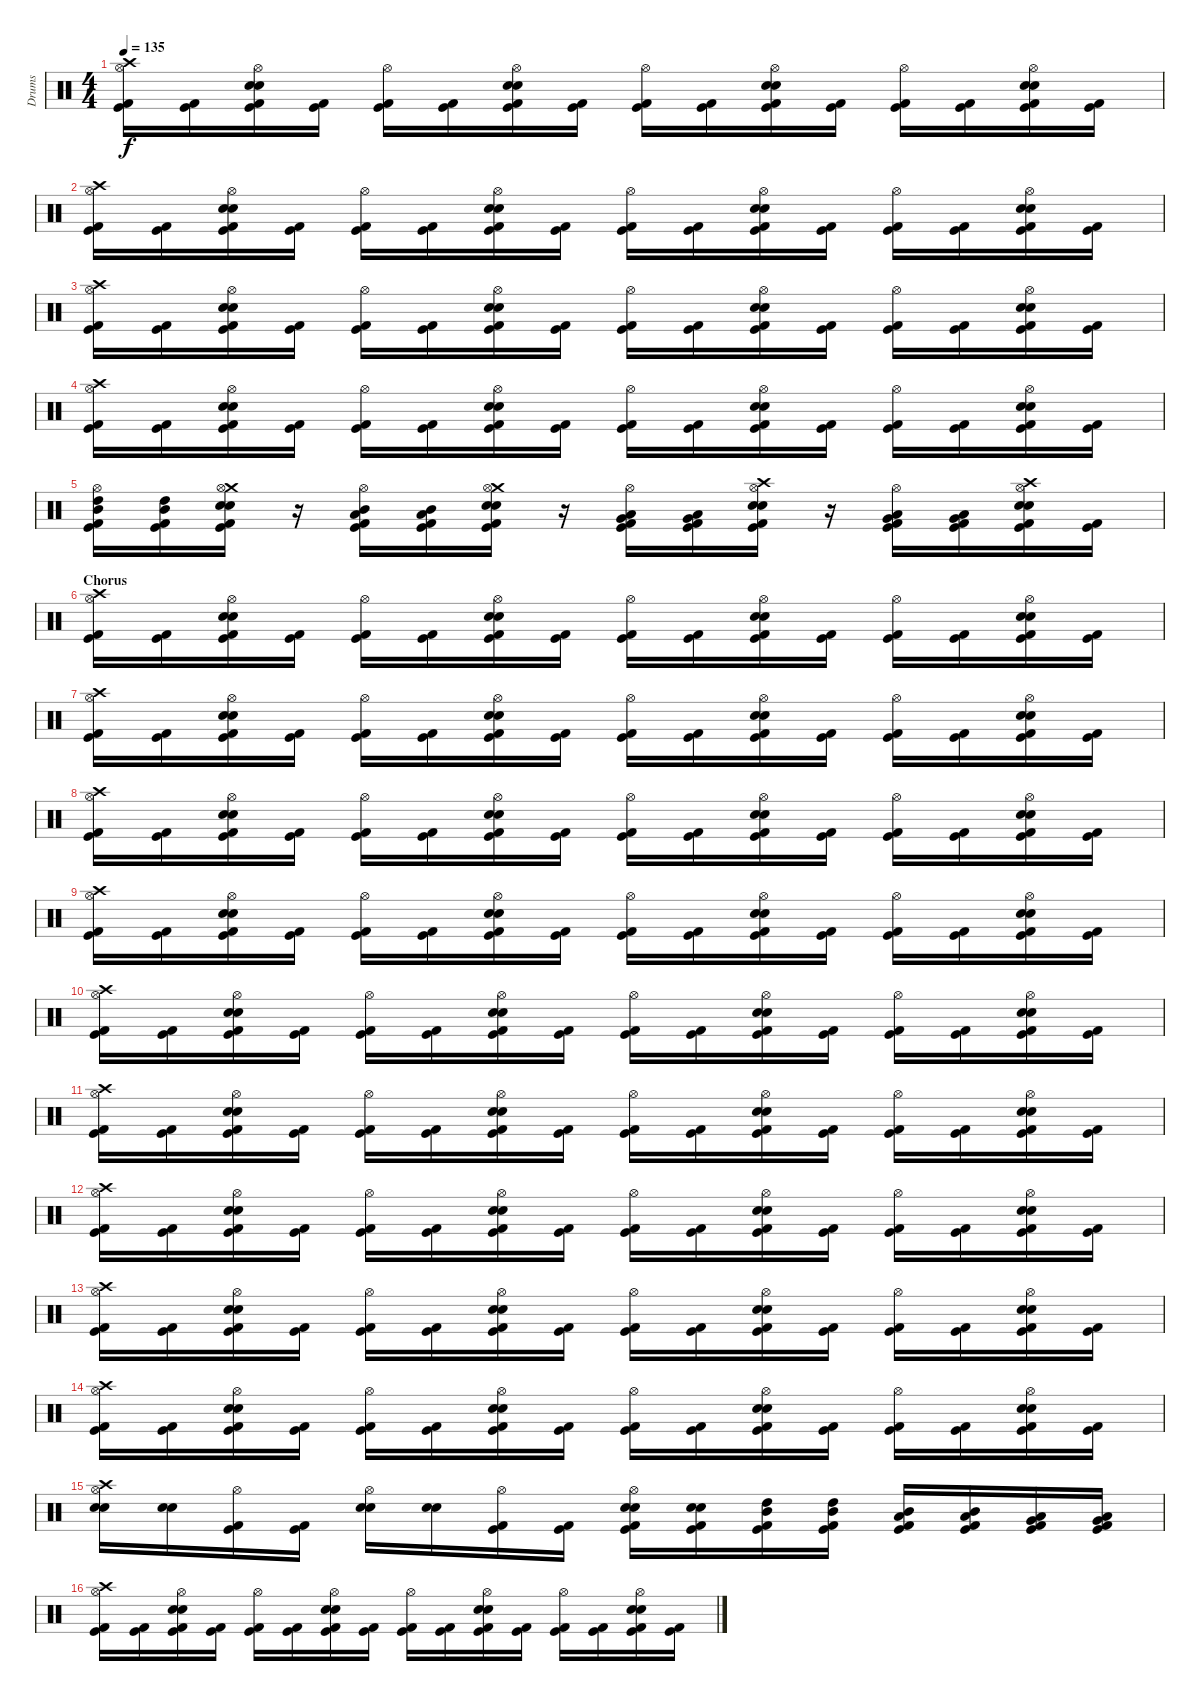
\track ("Drums" "Drums") {instrument percussion}
\staff {score}
\articulation defaults
\ts (4 4)
\tempo 135
\clef neutral
\ks c
("Crash high (hit)" "Hi-Hat (open)" "Kick (hit) 2" "Kick (hit)").16{dy f} ("Kick (hit) 2" "Kick (hit)").16 ("Hi-Hat (open)" "Snare (hit) 2" "Electric Snare (hit)" "Kick (hit) 2" "Kick (hit)").16 ("Kick (hit) 2" "Kick (hit)").16 ("Hi-Hat (open)" "Kick (hit) 2" "Kick (hit)").16 ("Kick (hit) 2" "Kick (hit)").16 ("Hi-Hat (open)" "Snare (hit) 2" "Electric Snare (hit)" "Kick (hit) 2" "Kick (hit)").16 ("Kick (hit) 2" "Kick (hit)").16 ("Hi-Hat (open)" "Kick (hit) 2" "Kick (hit)").16 ("Kick (hit) 2" "Kick (hit)").16 ("Hi-Hat (open)" "Snare (hit) 2" "Electric Snare (hit)" "Kick (hit) 2" "Kick (hit)").16 ("Kick (hit) 2" "Kick (hit)").16 ("Hi-Hat (open)" "Kick (hit) 2" "Kick (hit)").16 ("Kick (hit) 2" "Kick (hit)").16 ("Hi-Hat (open)" "Snare (hit) 2" "Electric Snare (hit)" "Kick (hit) 2" "Kick (hit)").16 ("Kick (hit) 2" "Kick (hit)").16 |
("Crash high (hit)" "Hi-Hat (open)" "Kick (hit) 2" "Kick (hit)").16 ("Kick (hit) 2" "Kick (hit)").16 ("Hi-Hat (open)" "Snare (hit) 2" "Electric Snare (hit)" "Kick (hit) 2" "Kick (hit)").16 ("Kick (hit) 2" "Kick (hit)").16 ("Hi-Hat (open)" "Kick (hit) 2" "Kick (hit)").16 ("Kick (hit) 2" "Kick (hit)").16 ("Hi-Hat (open)" "Snare (hit) 2" "Electric Snare (hit)" "Kick (hit) 2" "Kick (hit)").16 ("Kick (hit) 2" "Kick (hit)").16 ("Hi-Hat (open)" "Kick (hit) 2" "Kick (hit)").16 ("Kick (hit) 2" "Kick (hit)").16 ("Hi-Hat (open)" "Snare (hit) 2" "Electric Snare (hit)" "Kick (hit) 2" "Kick (hit)").16 ("Kick (hit) 2" "Kick (hit)").16 ("Hi-Hat (open)" "Kick (hit) 2" "Kick (hit)").16 ("Kick (hit) 2" "Kick (hit)").16 ("Hi-Hat (open)" "Snare (hit) 2" "Electric Snare (hit)" "Kick (hit) 2" "Kick (hit)").16 ("Kick (hit) 2" "Kick (hit)").16 |
("Crash high (hit)" "Hi-Hat (open)" "Kick (hit) 2" "Kick (hit)").16 ("Kick (hit) 2" "Kick (hit)").16 ("Hi-Hat (open)" "Snare (hit) 2" "Electric Snare (hit)" "Kick (hit) 2" "Kick (hit)").16 ("Kick (hit) 2" "Kick (hit)").16 ("Hi-Hat (open)" "Kick (hit) 2" "Kick (hit)").16 ("Kick (hit) 2" "Kick (hit)").16 ("Hi-Hat (open)" "Snare (hit) 2" "Electric Snare (hit)" "Kick (hit) 2" "Kick (hit)").16 ("Kick (hit) 2" "Kick (hit)").16 ("Hi-Hat (open)" "Kick (hit) 2" "Kick (hit)").16 ("Kick (hit) 2" "Kick (hit)").16 ("Hi-Hat (open)" "Snare (hit) 2" "Electric Snare (hit)" "Kick (hit) 2" "Kick (hit)").16 ("Kick (hit) 2" "Kick (hit)").16 ("Hi-Hat (open)" "Kick (hit) 2" "Kick (hit)").16 ("Kick (hit) 2" "Kick (hit)").16 ("Hi-Hat (open)" "Snare (hit) 2" "Electric Snare (hit)" "Kick (hit) 2" "Kick (hit)").16 ("Kick (hit) 2" "Kick (hit)").16 |
("Crash high (hit)" "Hi-Hat (open)" "Kick (hit) 2" "Kick (hit)").16 ("Kick (hit) 2" "Kick (hit)").16 ("Hi-Hat (open)" "Snare (hit) 2" "Electric Snare (hit)" "Kick (hit) 2" "Kick (hit)").16 ("Kick (hit) 2" "Kick (hit)").16 ("Hi-Hat (open)" "Kick (hit) 2" "Kick (hit)").16 ("Kick (hit) 2" "Kick (hit)").16 ("Hi-Hat (open)" "Snare (hit) 2" "Electric Snare (hit)" "Kick (hit) 2" "Kick (hit)").16 ("Kick (hit) 2" "Kick (hit)").16 ("Hi-Hat (open)" "Kick (hit) 2" "Kick (hit)").16 ("Kick (hit) 2" "Kick (hit)").16 ("Hi-Hat (open)" "Snare (hit) 2" "Electric Snare (hit)" "Kick (hit) 2" "Kick (hit)").16 ("Kick (hit) 2" "Kick (hit)").16 ("Hi-Hat (open)" "Kick (hit) 2" "Kick (hit)").16 ("Kick (hit) 2" "Kick (hit)").16 ("Hi-Hat (open)" "Snare (hit) 2" "Electric Snare (hit)" "Kick (hit) 2" "Kick (hit)").16 ("Kick (hit) 2" "Kick (hit)").16 |
("Hi-Hat (open)" "Mid Tom (hit)" "High Tom (hit)" "Kick (hit) 2" "Kick (hit)").16 ("Mid Tom (hit)" "High Tom (hit)" "Kick (hit) 2" "Kick (hit)").16 ("Crash medium (hit)" "Hi-Hat (open)" "Snare (hit) 2" "Electric Snare (hit)" "Kick (hit) 2" "Kick (hit)").16 r.16 ("Hi-Hat (open)" "Mid Tom (hit)" "Low Tom (hit)" "Kick (hit) 2" "Kick (hit)").16 ("Mid Tom (hit)" "Low Tom (hit)" "Kick (hit) 2" "Kick (hit)").16 ("Crash medium (hit)" "Hi-Hat (open)" "Snare (hit) 2" "Electric Snare (hit)" "Kick (hit) 2" "Kick (hit)").16 r.16 ("Hi-Hat (open)" "Very Low Tom (hit)" "Low Tom (hit)" "Kick (hit) 2" "Kick (hit)").16 ("Very Low Tom (hit)" "Low Tom (hit)" "Kick (hit) 2" "Kick (hit)").16 ("Crash high (hit)" "Hi-Hat (open)" "Snare (hit) 2" "Electric Snare (hit)" "Kick (hit) 2" "Kick (hit)").16 r.16 ("Hi-Hat (open)" "Very Low Tom (hit)" "Low Floor Tom (hit)" "Kick (hit) 2" "Kick (hit)").16 ("Very Low Tom (hit)" "Low Floor Tom (hit)" "Kick (hit) 2" "Kick (hit)").16 ("Crash high (hit)" "Hi-Hat (open)" "Snare (hit) 2" "Electric Snare (hit)" "Kick (hit) 2" "Kick (hit)").16 ("Kick (hit) 2" "Kick (hit)").16 |
\section ("" "Chorus")
("Crash high (hit)" "Hi-Hat (open)" "Kick (hit) 2" "Kick (hit)").16 ("Kick (hit) 2" "Kick (hit)").16 ("Hi-Hat (open)" "Snare (hit) 2" "Electric Snare (hit)" "Kick (hit) 2" "Kick (hit)").16 ("Kick (hit) 2" "Kick (hit)").16 ("Hi-Hat (open)" "Kick (hit) 2" "Kick (hit)").16 ("Kick (hit) 2" "Kick (hit)").16 ("Hi-Hat (open)" "Snare (hit) 2" "Electric Snare (hit)" "Kick (hit) 2" "Kick (hit)").16 ("Kick (hit) 2" "Kick (hit)").16 ("Hi-Hat (open)" "Kick (hit) 2" "Kick (hit)").16 ("Kick (hit) 2" "Kick (hit)").16 ("Hi-Hat (open)" "Snare (hit) 2" "Electric Snare (hit)" "Kick (hit) 2" "Kick (hit)").16 ("Kick (hit) 2" "Kick (hit)").16 ("Hi-Hat (open)" "Kick (hit) 2" "Kick (hit)").16 ("Kick (hit) 2" "Kick (hit)").16 ("Hi-Hat (open)" "Snare (hit) 2" "Electric Snare (hit)" "Kick (hit) 2" "Kick (hit)").16 ("Kick (hit) 2" "Kick (hit)").16 |
("Crash high (hit)" "Hi-Hat (open)" "Kick (hit) 2" "Kick (hit)").16 ("Kick (hit) 2" "Kick (hit)").16 ("Hi-Hat (open)" "Snare (hit) 2" "Electric Snare (hit)" "Kick (hit) 2" "Kick (hit)").16 ("Kick (hit) 2" "Kick (hit)").16 ("Hi-Hat (open)" "Kick (hit) 2" "Kick (hit)").16 ("Kick (hit) 2" "Kick (hit)").16 ("Hi-Hat (open)" "Snare (hit) 2" "Electric Snare (hit)" "Kick (hit) 2" "Kick (hit)").16 ("Kick (hit) 2" "Kick (hit)").16 ("Hi-Hat (open)" "Kick (hit) 2" "Kick (hit)").16 ("Kick (hit) 2" "Kick (hit)").16 ("Hi-Hat (open)" "Snare (hit) 2" "Electric Snare (hit)" "Kick (hit) 2" "Kick (hit)").16 ("Kick (hit) 2" "Kick (hit)").16 ("Hi-Hat (open)" "Kick (hit) 2" "Kick (hit)").16 ("Kick (hit) 2" "Kick (hit)").16 ("Hi-Hat (open)" "Snare (hit) 2" "Electric Snare (hit)" "Kick (hit) 2" "Kick (hit)").16 ("Kick (hit) 2" "Kick (hit)").16 |
("Crash high (hit)" "Hi-Hat (open)" "Kick (hit) 2" "Kick (hit)").16 ("Kick (hit) 2" "Kick (hit)").16 ("Hi-Hat (open)" "Snare (hit) 2" "Electric Snare (hit)" "Kick (hit) 2" "Kick (hit)").16 ("Kick (hit) 2" "Kick (hit)").16 ("Hi-Hat (open)" "Kick (hit) 2" "Kick (hit)").16 ("Kick (hit) 2" "Kick (hit)").16 ("Hi-Hat (open)" "Snare (hit) 2" "Electric Snare (hit)" "Kick (hit) 2" "Kick (hit)").16 ("Kick (hit) 2" "Kick (hit)").16 ("Hi-Hat (open)" "Kick (hit) 2" "Kick (hit)").16 ("Kick (hit) 2" "Kick (hit)").16 ("Hi-Hat (open)" "Snare (hit) 2" "Electric Snare (hit)" "Kick (hit) 2" "Kick (hit)").16 ("Kick (hit) 2" "Kick (hit)").16 ("Hi-Hat (open)" "Kick (hit) 2" "Kick (hit)").16 ("Kick (hit) 2" "Kick (hit)").16 ("Hi-Hat (open)" "Snare (hit) 2" "Electric Snare (hit)" "Kick (hit) 2" "Kick (hit)").16 ("Kick (hit) 2" "Kick (hit)").16 |
("Crash high (hit)" "Hi-Hat (open)" "Kick (hit) 2" "Kick (hit)").16 ("Kick (hit) 2" "Kick (hit)").16 ("Hi-Hat (open)" "Snare (hit) 2" "Electric Snare (hit)" "Kick (hit) 2" "Kick (hit)").16 ("Kick (hit) 2" "Kick (hit)").16 ("Hi-Hat (open)" "Kick (hit) 2" "Kick (hit)").16 ("Kick (hit) 2" "Kick (hit)").16 ("Hi-Hat (open)" "Snare (hit) 2" "Electric Snare (hit)" "Kick (hit) 2" "Kick (hit)").16 ("Kick (hit) 2" "Kick (hit)").16 ("Hi-Hat (open)" "Kick (hit) 2" "Kick (hit)").16 ("Kick (hit) 2" "Kick (hit)").16 ("Hi-Hat (open)" "Snare (hit) 2" "Electric Snare (hit)" "Kick (hit) 2" "Kick (hit)").16 ("Kick (hit) 2" "Kick (hit)").16 ("Hi-Hat (open)" "Kick (hit) 2" "Kick (hit)").16 ("Kick (hit) 2" "Kick (hit)").16 ("Hi-Hat (open)" "Snare (hit) 2" "Electric Snare (hit)" "Kick (hit) 2" "Kick (hit)").16 ("Kick (hit) 2" "Kick (hit)").16 |
("Crash high (hit)" "Hi-Hat (open)" "Kick (hit) 2" "Kick (hit)").16 ("Kick (hit) 2" "Kick (hit)").16 ("Hi-Hat (open)" "Snare (hit) 2" "Electric Snare (hit)" "Kick (hit) 2" "Kick (hit)").16 ("Kick (hit) 2" "Kick (hit)").16 ("Hi-Hat (open)" "Kick (hit) 2" "Kick (hit)").16 ("Kick (hit) 2" "Kick (hit)").16 ("Hi-Hat (open)" "Snare (hit) 2" "Electric Snare (hit)" "Kick (hit) 2" "Kick (hit)").16 ("Kick (hit) 2" "Kick (hit)").16 ("Hi-Hat (open)" "Kick (hit) 2" "Kick (hit)").16 ("Kick (hit) 2" "Kick (hit)").16 ("Hi-Hat (open)" "Snare (hit) 2" "Electric Snare (hit)" "Kick (hit) 2" "Kick (hit)").16 ("Kick (hit) 2" "Kick (hit)").16 ("Hi-Hat (open)" "Kick (hit) 2" "Kick (hit)").16 ("Kick (hit) 2" "Kick (hit)").16 ("Hi-Hat (open)" "Snare (hit) 2" "Electric Snare (hit)" "Kick (hit) 2" "Kick (hit)").16 ("Kick (hit) 2" "Kick (hit)").16 |
("Crash high (hit)" "Hi-Hat (open)" "Kick (hit) 2" "Kick (hit)").16 ("Kick (hit) 2" "Kick (hit)").16 ("Hi-Hat (open)" "Snare (hit) 2" "Electric Snare (hit)" "Kick (hit) 2" "Kick (hit)").16 ("Kick (hit) 2" "Kick (hit)").16 ("Hi-Hat (open)" "Kick (hit) 2" "Kick (hit)").16 ("Kick (hit) 2" "Kick (hit)").16 ("Hi-Hat (open)" "Snare (hit) 2" "Electric Snare (hit)" "Kick (hit) 2" "Kick (hit)").16 ("Kick (hit) 2" "Kick (hit)").16 ("Hi-Hat (open)" "Kick (hit) 2" "Kick (hit)").16 ("Kick (hit) 2" "Kick (hit)").16 ("Hi-Hat (open)" "Snare (hit) 2" "Electric Snare (hit)" "Kick (hit) 2" "Kick (hit)").16 ("Kick (hit) 2" "Kick (hit)").16 ("Hi-Hat (open)" "Kick (hit) 2" "Kick (hit)").16 ("Kick (hit) 2" "Kick (hit)").16 ("Hi-Hat (open)" "Snare (hit) 2" "Electric Snare (hit)" "Kick (hit) 2" "Kick (hit)").16 ("Kick (hit) 2" "Kick (hit)").16 |
("Crash high (hit)" "Hi-Hat (open)" "Kick (hit) 2" "Kick (hit)").16 ("Kick (hit) 2" "Kick (hit)").16 ("Hi-Hat (open)" "Snare (hit) 2" "Electric Snare (hit)" "Kick (hit) 2" "Kick (hit)").16 ("Kick (hit) 2" "Kick (hit)").16 ("Hi-Hat (open)" "Kick (hit) 2" "Kick (hit)").16 ("Kick (hit) 2" "Kick (hit)").16 ("Hi-Hat (open)" "Snare (hit) 2" "Electric Snare (hit)" "Kick (hit) 2" "Kick (hit)").16 ("Kick (hit) 2" "Kick (hit)").16 ("Hi-Hat (open)" "Kick (hit) 2" "Kick (hit)").16 ("Kick (hit) 2" "Kick (hit)").16 ("Hi-Hat (open)" "Snare (hit) 2" "Electric Snare (hit)" "Kick (hit) 2" "Kick (hit)").16 ("Kick (hit) 2" "Kick (hit)").16 ("Hi-Hat (open)" "Kick (hit) 2" "Kick (hit)").16 ("Kick (hit) 2" "Kick (hit)").16 ("Hi-Hat (open)" "Snare (hit) 2" "Electric Snare (hit)" "Kick (hit) 2" "Kick (hit)").16 ("Kick (hit) 2" "Kick (hit)").16 |
("Crash high (hit)" "Hi-Hat (open)" "Kick (hit) 2" "Kick (hit)").16 ("Kick (hit) 2" "Kick (hit)").16 ("Hi-Hat (open)" "Snare (hit) 2" "Electric Snare (hit)" "Kick (hit) 2" "Kick (hit)").16 ("Kick (hit) 2" "Kick (hit)").16 ("Hi-Hat (open)" "Kick (hit) 2" "Kick (hit)").16 ("Kick (hit) 2" "Kick (hit)").16 ("Hi-Hat (open)" "Snare (hit) 2" "Electric Snare (hit)" "Kick (hit) 2" "Kick (hit)").16 ("Kick (hit) 2" "Kick (hit)").16 ("Hi-Hat (open)" "Kick (hit) 2" "Kick (hit)").16 ("Kick (hit) 2" "Kick (hit)").16 ("Hi-Hat (open)" "Snare (hit) 2" "Electric Snare (hit)" "Kick (hit) 2" "Kick (hit)").16 ("Kick (hit) 2" "Kick (hit)").16 ("Hi-Hat (open)" "Kick (hit) 2" "Kick (hit)").16 ("Kick (hit) 2" "Kick (hit)").16 ("Hi-Hat (open)" "Snare (hit) 2" "Electric Snare (hit)" "Kick (hit) 2" "Kick (hit)").16 ("Kick (hit) 2" "Kick (hit)").16 |
("Crash high (hit)" "Hi-Hat (open)" "Kick (hit) 2" "Kick (hit)").16 ("Kick (hit) 2" "Kick (hit)").16 ("Hi-Hat (open)" "Snare (hit) 2" "Electric Snare (hit)" "Kick (hit) 2" "Kick (hit)").16 ("Kick (hit) 2" "Kick (hit)").16 ("Hi-Hat (open)" "Kick (hit) 2" "Kick (hit)").16 ("Kick (hit) 2" "Kick (hit)").16 ("Hi-Hat (open)" "Snare (hit) 2" "Electric Snare (hit)" "Kick (hit) 2" "Kick (hit)").16 ("Kick (hit) 2" "Kick (hit)").16 ("Hi-Hat (open)" "Kick (hit) 2" "Kick (hit)").16 ("Kick (hit) 2" "Kick (hit)").16 ("Hi-Hat (open)" "Snare (hit) 2" "Electric Snare (hit)" "Kick (hit) 2" "Kick (hit)").16 ("Kick (hit) 2" "Kick (hit)").16 ("Hi-Hat (open)" "Kick (hit) 2" "Kick (hit)").16 ("Kick (hit) 2" "Kick (hit)").16 ("Hi-Hat (open)" "Snare (hit) 2" "Electric Snare (hit)" "Kick (hit) 2" "Kick (hit)").16 ("Kick (hit) 2" "Kick (hit)").16 |
("Crash high (hit)" "Hi-Hat (open)" "Electric Snare (hit)" "Snare (hit) 2").16 ("Snare (hit) 2" "Electric Snare (hit)").16 ("Hi-Hat (open)" "Kick (hit) 2" "Kick (hit)").16 ("Kick (hit) 2" "Kick (hit)").16 ("Hi-Hat (open)" "Electric Snare (hit)" "Snare (hit) 2").16 ("Electric Snare (hit)" "Snare (hit) 2").16 ("Hi-Hat (open)" "Kick (hit) 2" "Kick (hit)").16 ("Kick (hit) 2" "Kick (hit)").16 ("Hi-Hat (open)" "Electric Snare (hit)" "Snare (hit) 2" "Kick (hit) 2" "Kick (hit)").16 ("Electric Snare (hit)" "Snare (hit) 2" "Kick (hit) 2" "Kick (hit)").16 ("High Tom (hit)" "Mid Tom (hit)" "Kick (hit) 2" "Kick (hit)").16 ("High Tom (hit)" "Mid Tom (hit)" "Kick (hit) 2" "Kick (hit)").16 ("Mid Tom (hit)" "Low Tom (hit)" "Kick (hit) 2" "Kick (hit)").16 ("Mid Tom (hit)" "Low Tom (hit)" "Kick (hit) 2" "Kick (hit)").16 ("Low Tom (hit)" "Very Low Tom (hit)" "Kick (hit) 2" "Kick (hit)").16 ("Low Tom (hit)" "Very Low Tom (hit)" "Kick (hit) 2" "Kick (hit)").16 |
("Crash high (hit)" "Hi-Hat (open)" "Kick (hit) 2" "Kick (hit)").16 ("Kick (hit) 2" "Kick (hit)").16 ("Hi-Hat (open)" "Snare (hit) 2" "Electric Snare (hit)" "Kick (hit) 2" "Kick (hit)").16 ("Kick (hit) 2" "Kick (hit)").16 ("Hi-Hat (open)" "Kick (hit) 2" "Kick (hit)").16 ("Kick (hit) 2" "Kick (hit)").16 ("Hi-Hat (open)" "Snare (hit) 2" "Electric Snare (hit)" "Kick (hit) 2" "Kick (hit)").16 ("Kick (hit) 2" "Kick (hit)").16 ("Hi-Hat (open)" "Kick (hit) 2" "Kick (hit)").16 ("Kick (hit) 2" "Kick (hit)").16 ("Hi-Hat (open)" "Snare (hit) 2" "Electric Snare (hit)" "Kick (hit) 2" "Kick (hit)").16 ("Kick (hit) 2" "Kick (hit)").16 ("Hi-Hat (open)" "Kick (hit) 2" "Kick (hit)").16 ("Kick (hit) 2" "Kick (hit)").16 ("Hi-Hat (open)" "Snare (hit) 2" "Electric Snare (hit)" "Kick (hit) 2" "Kick (hit)").16 ("Kick (hit) 2" "Kick (hit)").16
